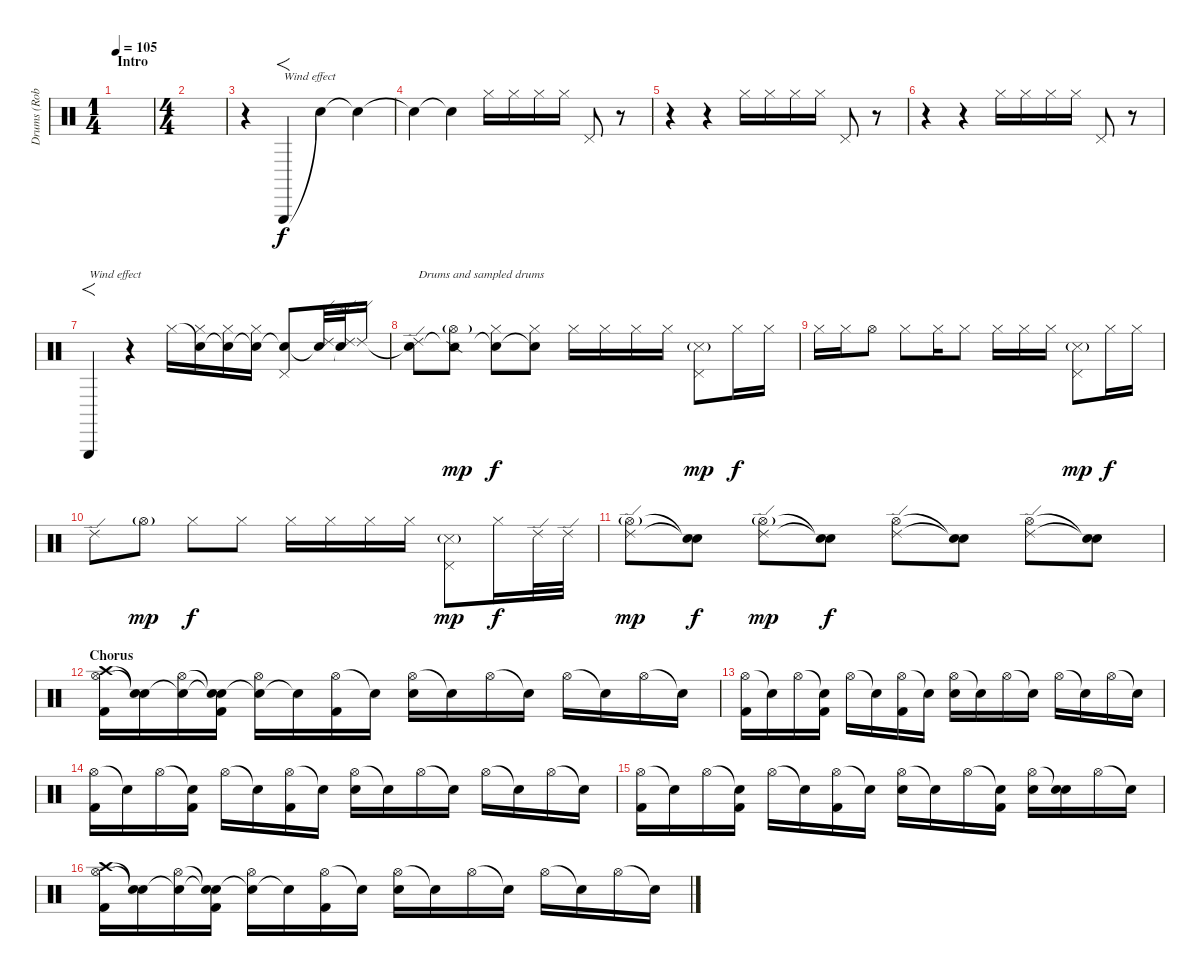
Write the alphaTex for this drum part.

\track ("Drums (Rob Bourdon)" "Drums (Rob") {instrument percussion}
\staff {score}
\articulation defaults
\ts (1 4)
\section ("" "Intro")
\tempo 105
\clef neutral
\ks c
|
\ts (4 4)
|
r.4 "Triangle (hit)".4{f txt "Wind effect" volume 8} "Snare (hit)"{t}.4 "Snare (hit)"{t}.4 |
"Snare (hit)"{t}.4 "Snare (hit)"{t}.4 "Hi-Hat (closed)".16{volume 12} "Hi-Hat (closed)".16 "Hi-Hat (closed)".16 "Hi-Hat (closed)".16 "Pedal Hi-Hat (hit)".8 r.8 |
r.4 r.4 "Hi-Hat (closed)".16 "Hi-Hat (closed)".16 "Hi-Hat (closed)".16 "Hi-Hat (closed)".16 "Pedal Hi-Hat (hit)".8 r.8 |
r.4 r.4 "Hi-Hat (closed)".16 "Hi-Hat (closed)".16 "Hi-Hat (closed)".16 "Hi-Hat (closed)".16 "Pedal Hi-Hat (hit)".8 r.8 |
"Triangle (hit)".4{f txt "Wind effect"} r.4 "Hi-Hat (closed)".16 ("Snare (hit)"{t} "Hi-Hat (closed)").16 ("Snare (hit)"{t} "Hi-Hat (closed)").16 ("Snare (hit)"{t} "Hi-Hat (closed)").16 ("Snare (hit)"{t} "Pedal Hi-Hat (hit)").8 ("Snare (hit)"{t} "Ride (edge) 2").32 ("Snare (hit)"{t} "Ride (edge) 2").32 "Ride (edge) 2".16 |
("Snare (hit)"{t} "Ride (edge) 2").8{txt "Drums and sampled drums"} ("Snare (side stick) 2"{t} "Hi-Hat (open)"{g}).8{dy mp} ("Snare (hit)"{t} "Hi-Hat (closed)").8{dy f} ("Snare (hit)"{t} "Hi-Hat (closed)").8 "Hi-Hat (closed)".16 "Hi-Hat (closed)".16 "Hi-Hat (closed)".16 "Hi-Hat (closed)".16 ("Metronome (hit)"{g} "Pedal Hi-Hat (hit)").8{dy mp} "Hi-Hat (closed)".16{dy f} "Hi-Hat (closed)".16 |
"Hi-Hat (closed)".16 "Hi-Hat (closed)".16 "Hi-Hat (open)".8 "Hi-Hat (closed)".8 "Hi-Hat (closed)".16 "Hi-Hat (closed)".8 "Hi-Hat (closed)".16 "Hi-Hat (closed)".16 "Hi-Hat (closed)".16 ("Metronome (hit)"{g} "Pedal Hi-Hat (hit)").8{dy mp} "Hi-Hat (closed)".16{dy f} "Hi-Hat (closed)".16 |
"Ride (edge) 2".8 "Hi-Hat (open)"{g}.8{dy mp} "Hi-Hat (closed)".8{dy f} "Hi-Hat (closed)".8 "Hi-Hat (closed)".16 "Hi-Hat (closed)".16 "Hi-Hat (closed)".16 "Hi-Hat (closed)".16 ("Metronome (hit)"{g} "Pedal Hi-Hat (hit)").8{dy mp} "Hi-Hat (closed)".16{dy f} "Ride (edge) 2".32 "Ride (edge) 2".32 |
("Ride (edge) 2" "Hi-Hat (open)"{g}).8{dy mp} ("Snare (hit)"{t} "Snare (hit)"{t}).8{dy f} ("Ride (edge) 2" "Hi-Hat (open)"{g}).8{dy mp} ("Snare (hit)"{t} "Snare (hit)"{t}).8{dy f} ("Ride (edge) 2" "Hi-Hat (open)").8 ("Snare (hit)"{t} "Snare (hit)"{t}).8 ("Ride (edge) 2" "Hi-Hat (open)").8 ("Snare (hit)"{t} "Snare (hit)"{t}).8 |
\section ("" "Chorus")
("Crash high (hit)" "Hi-Hat (open)" "Kick (hit) 2").16{volume 12} ("Snare (hit)"{t} "Snare (hit)"{t}).16 ("Snare (hit)"{t} "Hi-Hat (open)").16 ("Snare (hit)"{t} "Snare (hit)"{t} "Kick (hit) 2").16 ("Snare (hit)"{t} "Hi-Hat (open)").16 "Snare (hit)"{t}.16 ("Hi-Hat (open)" "Kick (hit) 2").16 "Snare (hit)"{t}.16 ("Hi-Hat (open)" "Electric Snare (hit)").16 "Snare (hit)"{t}.16 "Hi-Hat (open)".16 "Snare (hit)"{t}.16 "Hi-Hat (open)".16 "Snare (hit)"{t}.16 "Hi-Hat (open)".16 "Snare (hit)"{t}.16 |
("Hi-Hat (open)" "Kick (hit) 2").16 "Snare (hit)"{t}.16 "Hi-Hat (open)".16 ("Snare (hit)"{t} "Kick (hit) 2").16 "Hi-Hat (open)".16 "Snare (hit)"{t}.16 ("Hi-Hat (open)" "Kick (hit) 2").16 "Snare (hit)"{t}.16 ("Hi-Hat (open)" "Electric Snare (hit)").16 "Snare (hit)"{t}.16 "Hi-Hat (open)".16 "Snare (hit)"{t}.16 "Hi-Hat (open)".16 "Snare (hit)"{t}.16 "Hi-Hat (open)".16 "Snare (hit)"{t}.16 |
("Hi-Hat (open)" "Kick (hit) 2").16 "Snare (hit)"{t}.16 "Hi-Hat (open)".16 ("Snare (hit)"{t} "Kick (hit) 2").16 "Hi-Hat (open)".16 "Snare (hit)"{t}.16 ("Hi-Hat (open)" "Kick (hit) 2").16 "Snare (hit)"{t}.16 ("Hi-Hat (open)" "Electric Snare (hit)").16 "Snare (hit)"{t}.16 "Hi-Hat (open)".16 "Snare (hit)"{t}.16 "Hi-Hat (open)".16 "Snare (hit)"{t}.16 "Hi-Hat (open)".16 "Snare (hit)"{t}.16 |
("Hi-Hat (open)" "Kick (hit) 2").16 "Snare (hit)"{t}.16 "Hi-Hat (open)".16 ("Snare (hit)"{t} "Kick (hit) 2").16 "Hi-Hat (open)".16 "Snare (hit)"{t}.16 ("Hi-Hat (open)" "Kick (hit) 2").16 "Snare (hit)"{t}.16 ("Hi-Hat (open)" "Electric Snare (hit)").16 "Snare (hit)"{t}.16 "Hi-Hat (open)".16 ("Snare (hit)"{t} "Kick (hit) 2").16 ("Hi-Hat (open)" "Electric Snare (hit)").16 ("Snare (hit)"{t} "Electric Snare (hit)").16 "Hi-Hat (open)".16 "Snare (hit)"{t}.16 |
("Crash high (hit)" "Hi-Hat (open)" "Kick (hit) 2").16{volume 12} ("Snare (hit)"{t} "Snare (hit)"{t}).16 ("Snare (hit)"{t} "Hi-Hat (open)").16 ("Snare (hit)"{t} "Snare (hit)"{t} "Kick (hit) 2").16 ("Snare (hit)"{t} "Hi-Hat (open)").16 "Snare (hit)"{t}.16 ("Hi-Hat (open)" "Kick (hit) 2").16 "Snare (hit)"{t}.16 ("Hi-Hat (open)" "Electric Snare (hit)").16 "Snare (hit)"{t}.16 "Hi-Hat (open)".16 "Snare (hit)"{t}.16 "Hi-Hat (open)".16 "Snare (hit)"{t}.16 "Hi-Hat (open)".16 "Snare (hit)"{t}.16
